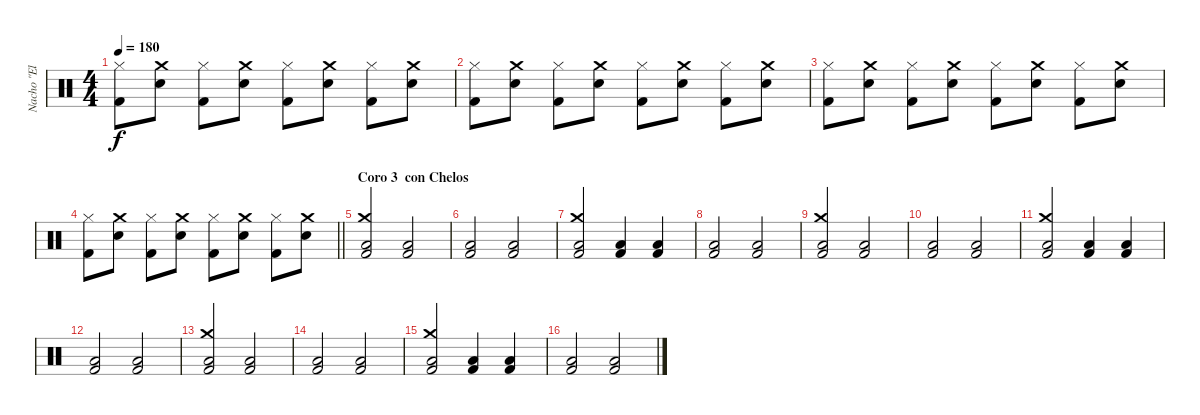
\track ("Nacho \"El Implacable\"Gonzales" "Nacho \"El ") {instrument percussion}
\staff {score}
\articulation defaults
\ts (4 4)
\tempo 180
\clef neutral
\ks c
("Hi-Hat (closed)" "Kick (hit) 2").8{dy f} ("Crash medium (hit)" "Electric Snare (hit)").8 ("Hi-Hat (closed)" "Kick (hit) 2").8 ("Crash medium (hit)" "Electric Snare (hit)").8 ("Hi-Hat (closed)" "Kick (hit) 2").8 ("Crash medium (hit)" "Electric Snare (hit)").8 ("Hi-Hat (closed)" "Kick (hit) 2").8 ("Crash medium (hit)" "Electric Snare (hit)").8 |
("Hi-Hat (closed)" "Kick (hit) 2").8 ("Crash medium (hit)" "Electric Snare (hit)").8 ("Hi-Hat (closed)" "Kick (hit) 2").8 ("Crash medium (hit)" "Electric Snare (hit)").8 ("Hi-Hat (closed)" "Kick (hit) 2").8 ("Crash medium (hit)" "Electric Snare (hit)").8 ("Hi-Hat (closed)" "Kick (hit) 2").8 ("Crash medium (hit)" "Electric Snare (hit)").8 |
("Hi-Hat (closed)" "Kick (hit) 2").8 ("Crash medium (hit)" "Electric Snare (hit)").8 ("Hi-Hat (closed)" "Kick (hit) 2").8 ("Crash medium (hit)" "Electric Snare (hit)").8 ("Hi-Hat (closed)" "Kick (hit) 2").8 ("Crash medium (hit)" "Electric Snare (hit)").8 ("Hi-Hat (closed)" "Kick (hit) 2").8 ("Crash medium (hit)" "Electric Snare (hit)").8 |
\barLineRight lightlight
("Hi-Hat (closed)" "Kick (hit) 2").8 ("Crash medium (hit)" "Electric Snare (hit)").8 ("Hi-Hat (closed)" "Kick (hit) 2").8 ("Crash medium (hit)" "Electric Snare (hit)").8 ("Hi-Hat (closed)" "Kick (hit) 2").8 ("Crash medium (hit)" "Electric Snare (hit)").8 ("Hi-Hat (closed)" "Kick (hit) 2").8 ("Crash medium (hit)" "Electric Snare (hit)").8 |
\section ("" "Coro 3  con Chelos")
("Crash medium (hit)" "Low Floor Tom (hit)" "Kick (hit) 2").2 ("Low Floor Tom (hit)" "Kick (hit) 2").2 |
("Low Floor Tom (hit)" "Kick (hit) 2").2 ("Low Floor Tom (hit)" "Kick (hit) 2").2 |
("Crash medium (hit)" "Low Floor Tom (hit)" "Kick (hit) 2").2 ("Low Floor Tom (hit)" "Kick (hit) 2").4 ("Low Floor Tom (hit)" "Kick (hit) 2").4 |
("Low Floor Tom (hit)" "Kick (hit) 2").2 ("Low Floor Tom (hit)" "Kick (hit) 2").2 |
("Crash medium (hit)" "Low Floor Tom (hit)" "Kick (hit) 2").2 ("Low Floor Tom (hit)" "Kick (hit) 2").2 |
("Low Floor Tom (hit)" "Kick (hit) 2").2 ("Low Floor Tom (hit)" "Kick (hit) 2").2 |
("Crash medium (hit)" "Low Floor Tom (hit)" "Kick (hit) 2").2 ("Low Floor Tom (hit)" "Kick (hit) 2").4 ("Low Floor Tom (hit)" "Kick (hit) 2").4 |
("Low Floor Tom (hit)" "Kick (hit) 2").2 ("Low Floor Tom (hit)" "Kick (hit) 2").2 |
("Crash medium (hit)" "Low Floor Tom (hit)" "Kick (hit) 2").2 ("Low Floor Tom (hit)" "Kick (hit) 2").2 |
("Low Floor Tom (hit)" "Kick (hit) 2").2 ("Low Floor Tom (hit)" "Kick (hit) 2").2 |
("Crash medium (hit)" "Low Floor Tom (hit)" "Kick (hit) 2").2 ("Low Floor Tom (hit)" "Kick (hit) 2").4 ("Low Floor Tom (hit)" "Kick (hit) 2").4 |
("Low Floor Tom (hit)" "Kick (hit) 2").2 ("Low Floor Tom (hit)" "Kick (hit) 2").2
